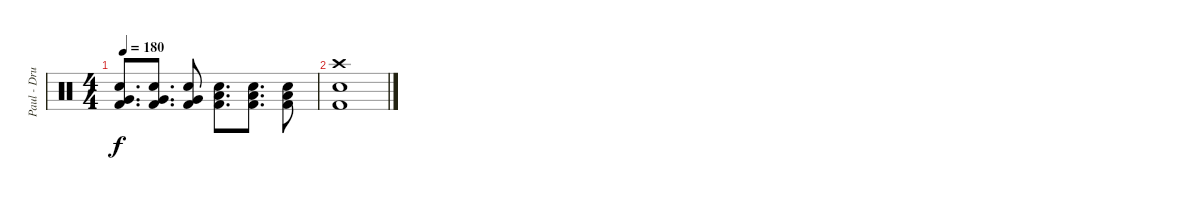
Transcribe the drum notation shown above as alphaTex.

\track ("Paul - Drums" "Paul - Dru") {instrument percussion}
\staff {score}
\articulation defaults
\ts (4 4)
\tempo 180
\clef neutral
\ks c
("Very Low Tom (hit)" "Electric Snare (hit)" "Kick (hit) 2").8{d dy f} ("Very Low Tom (hit)" "Electric Snare (hit)" "Kick (hit) 2").8{d} ("Very Low Tom (hit)" "Electric Snare (hit)" "Kick (hit) 2").8 ("Low Floor Tom (hit)" "Electric Snare (hit)" "Kick (hit) 2").8{d} ("Low Floor Tom (hit)" "Electric Snare (hit)" "Kick (hit) 2").8{d} ("Low Floor Tom (hit)" "Electric Snare (hit)" "Kick (hit) 2").8 |
("Crash high (hit)" "Electric Snare (hit)" "Kick (hit) 2").1
